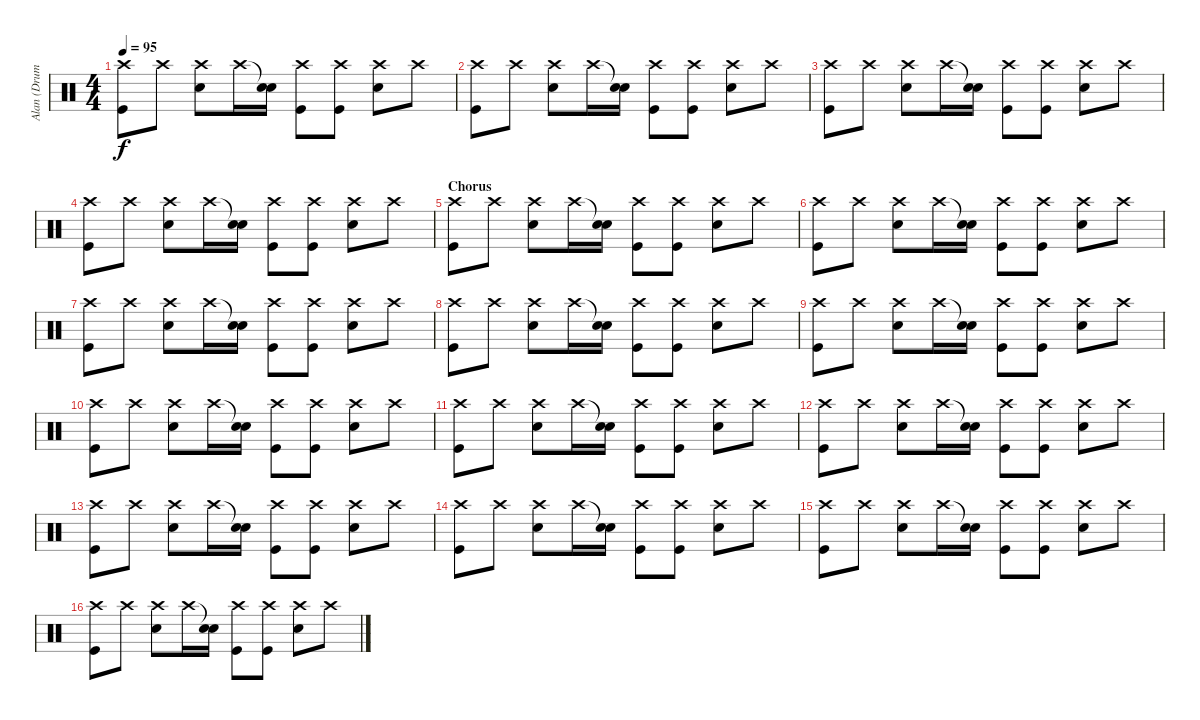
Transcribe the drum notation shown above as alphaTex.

\track ("Alan (Drums)" "Alan (Drum") {instrument percussion}
\staff {score}
\articulation defaults
\ts (4 4)
\tempo 95
\clef neutral
\ks c
("Crash high (hit)" "Kick (hit)").8{dy f} "Crash high (hit)".8 ("Crash high (hit)" "Electric Snare (hit)").8 "Crash high (hit)".16 ("Snare (hit)"{t} "Electric Snare (hit)").16 ("Crash high (hit)" "Kick (hit)").8 ("Crash high (hit)" "Kick (hit)").8 ("Crash high (hit)" "Electric Snare (hit)").8 "Crash high (hit)".8 |
("Crash high (hit)" "Kick (hit)").8 "Crash high (hit)".8 ("Crash high (hit)" "Electric Snare (hit)").8 "Crash high (hit)".16 ("Snare (hit)"{t} "Electric Snare (hit)").16 ("Crash high (hit)" "Kick (hit)").8 ("Crash high (hit)" "Kick (hit)").8 ("Crash high (hit)" "Electric Snare (hit)").8 "Crash high (hit)".8 |
("Crash high (hit)" "Kick (hit)").8 "Crash high (hit)".8 ("Crash high (hit)" "Electric Snare (hit)").8 "Crash high (hit)".16 ("Snare (hit)"{t} "Electric Snare (hit)").16 ("Crash high (hit)" "Kick (hit)").8 ("Crash high (hit)" "Kick (hit)").8 ("Crash high (hit)" "Electric Snare (hit)").8 "Crash high (hit)".8 |
("Crash high (hit)" "Kick (hit)").8 "Crash high (hit)".8 ("Crash high (hit)" "Electric Snare (hit)").8 "Crash high (hit)".16 ("Snare (hit)"{t} "Electric Snare (hit)").16 ("Crash high (hit)" "Kick (hit)").8 ("Crash high (hit)" "Kick (hit)").8 ("Crash high (hit)" "Electric Snare (hit)").8 "Crash high (hit)".8 |
\section ("" "Chorus")
("Crash high (hit)" "Kick (hit)").8 "Crash high (hit)".8 ("Crash high (hit)" "Electric Snare (hit)").8 "Crash high (hit)".16 ("Snare (hit)"{t} "Electric Snare (hit)").16 ("Crash high (hit)" "Kick (hit)").8 ("Crash high (hit)" "Kick (hit)").8 ("Crash high (hit)" "Electric Snare (hit)").8 "Crash high (hit)".8 |
("Crash high (hit)" "Kick (hit)").8 "Crash high (hit)".8 ("Crash high (hit)" "Electric Snare (hit)").8 "Crash high (hit)".16 ("Snare (hit)"{t} "Electric Snare (hit)").16 ("Crash high (hit)" "Kick (hit)").8 ("Crash high (hit)" "Kick (hit)").8 ("Crash high (hit)" "Electric Snare (hit)").8 "Crash high (hit)".8 |
("Crash high (hit)" "Kick (hit)").8 "Crash high (hit)".8 ("Crash high (hit)" "Electric Snare (hit)").8 "Crash high (hit)".16 ("Snare (hit)"{t} "Electric Snare (hit)").16 ("Crash high (hit)" "Kick (hit)").8 ("Crash high (hit)" "Kick (hit)").8 ("Crash high (hit)" "Electric Snare (hit)").8 "Crash high (hit)".8 |
("Crash high (hit)" "Kick (hit)").8 "Crash high (hit)".8 ("Crash high (hit)" "Electric Snare (hit)").8 "Crash high (hit)".16 ("Snare (hit)"{t} "Electric Snare (hit)").16 ("Crash high (hit)" "Kick (hit)").8 ("Crash high (hit)" "Kick (hit)").8 ("Crash high (hit)" "Electric Snare (hit)").8 "Crash high (hit)".8 |
("Crash high (hit)" "Kick (hit)").8 "Crash high (hit)".8 ("Crash high (hit)" "Electric Snare (hit)").8 "Crash high (hit)".16 ("Snare (hit)"{t} "Electric Snare (hit)").16 ("Crash high (hit)" "Kick (hit)").8 ("Crash high (hit)" "Kick (hit)").8 ("Crash high (hit)" "Electric Snare (hit)").8 "Crash high (hit)".8 |
("Crash high (hit)" "Kick (hit)").8 "Crash high (hit)".8 ("Crash high (hit)" "Electric Snare (hit)").8 "Crash high (hit)".16 ("Snare (hit)"{t} "Electric Snare (hit)").16 ("Crash high (hit)" "Kick (hit)").8 ("Crash high (hit)" "Kick (hit)").8 ("Crash high (hit)" "Electric Snare (hit)").8 "Crash high (hit)".8 |
("Crash high (hit)" "Kick (hit)").8 "Crash high (hit)".8 ("Crash high (hit)" "Electric Snare (hit)").8 "Crash high (hit)".16 ("Snare (hit)"{t} "Electric Snare (hit)").16 ("Crash high (hit)" "Kick (hit)").8 ("Crash high (hit)" "Kick (hit)").8 ("Crash high (hit)" "Electric Snare (hit)").8 "Crash high (hit)".8 |
("Crash high (hit)" "Kick (hit)").8 "Crash high (hit)".8 ("Crash high (hit)" "Electric Snare (hit)").8 "Crash high (hit)".16 ("Snare (hit)"{t} "Electric Snare (hit)").16 ("Crash high (hit)" "Kick (hit)").8 ("Crash high (hit)" "Kick (hit)").8 ("Crash high (hit)" "Electric Snare (hit)").8 "Crash high (hit)".8 |
("Crash high (hit)" "Kick (hit)").8 "Crash high (hit)".8 ("Crash high (hit)" "Electric Snare (hit)").8 "Crash high (hit)".16 ("Snare (hit)"{t} "Electric Snare (hit)").16 ("Crash high (hit)" "Kick (hit)").8 ("Crash high (hit)" "Kick (hit)").8 ("Crash high (hit)" "Electric Snare (hit)").8 "Crash high (hit)".8 |
("Crash high (hit)" "Kick (hit)").8 "Crash high (hit)".8 ("Crash high (hit)" "Electric Snare (hit)").8 "Crash high (hit)".16 ("Snare (hit)"{t} "Electric Snare (hit)").16 ("Crash high (hit)" "Kick (hit)").8 ("Crash high (hit)" "Kick (hit)").8 ("Crash high (hit)" "Electric Snare (hit)").8 "Crash high (hit)".8 |
("Crash high (hit)" "Kick (hit)").8 "Crash high (hit)".8 ("Crash high (hit)" "Electric Snare (hit)").8 "Crash high (hit)".16 ("Snare (hit)"{t} "Electric Snare (hit)").16 ("Crash high (hit)" "Kick (hit)").8 ("Crash high (hit)" "Kick (hit)").8 ("Crash high (hit)" "Electric Snare (hit)").8 "Crash high (hit)".8 |
("Crash high (hit)" "Kick (hit)").8 "Crash high (hit)".8 ("Crash high (hit)" "Electric Snare (hit)").8 "Crash high (hit)".16 ("Snare (hit)"{t} "Electric Snare (hit)").16 ("Crash high (hit)" "Kick (hit)").8 ("Crash high (hit)" "Kick (hit)").8 ("Crash high (hit)" "Electric Snare (hit)").8 "Crash high (hit)".8
